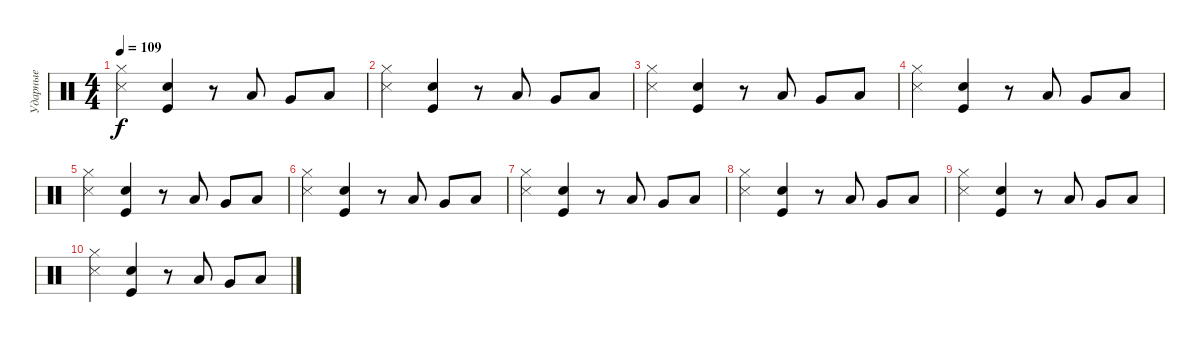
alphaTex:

\track ("Ударные" "Ударные") {instrument percussion}
\staff {score}
\articulation defaults
\ts (4 4)
\tempo 109
\clef neutral
\ks c
("Snare (side stick) 3" "Hi-Hat (closed)").4{dy f} ("Snare (hit) 2" "Kick (hit)").4 r.8 "Low Floor Tom (hit)".8 "Very Low Tom (hit)".8 "Low Floor Tom (hit)".8 |
("Snare (side stick) 3" "Hi-Hat (closed)").4 ("Snare (hit) 2" "Kick (hit)").4 r.8 "Low Floor Tom (hit)".8 "Very Low Tom (hit)".8 "Low Floor Tom (hit)".8 |
("Snare (side stick) 3" "Hi-Hat (closed)").4 ("Snare (hit) 2" "Kick (hit)").4 r.8 "Low Floor Tom (hit)".8 "Very Low Tom (hit)".8 "Low Floor Tom (hit)".8 |
("Snare (side stick) 3" "Hi-Hat (closed)").4 ("Snare (hit) 2" "Kick (hit)").4 r.8 "Low Floor Tom (hit)".8 "Very Low Tom (hit)".8 "Low Floor Tom (hit)".8 |
("Snare (side stick) 3" "Hi-Hat (closed)").4 ("Snare (hit) 2" "Kick (hit)").4 r.8 "Low Floor Tom (hit)".8 "Very Low Tom (hit)".8 "Low Floor Tom (hit)".8 |
("Snare (side stick) 3" "Hi-Hat (closed)").4 ("Snare (hit) 2" "Kick (hit)").4 r.8 "Low Floor Tom (hit)".8 "Very Low Tom (hit)".8 "Low Floor Tom (hit)".8 |
("Snare (side stick) 3" "Hi-Hat (closed)").4 ("Snare (hit) 2" "Kick (hit)").4 r.8 "Low Floor Tom (hit)".8 "Very Low Tom (hit)".8 "Low Floor Tom (hit)".8 |
("Snare (side stick) 3" "Hi-Hat (closed)").4 ("Snare (hit) 2" "Kick (hit)").4 r.8 "Low Floor Tom (hit)".8 "Very Low Tom (hit)".8 "Low Floor Tom (hit)".8 |
("Snare (side stick) 3" "Hi-Hat (closed)").4 ("Snare (hit) 2" "Kick (hit)").4 r.8 "Low Floor Tom (hit)".8 "Very Low Tom (hit)".8 "Low Floor Tom (hit)".8 |
("Snare (side stick) 3" "Hi-Hat (closed)").4 ("Snare (hit) 2" "Kick (hit)").4 r.8 "Low Floor Tom (hit)".8 "Very Low Tom (hit)".8 "Low Floor Tom (hit)".8
